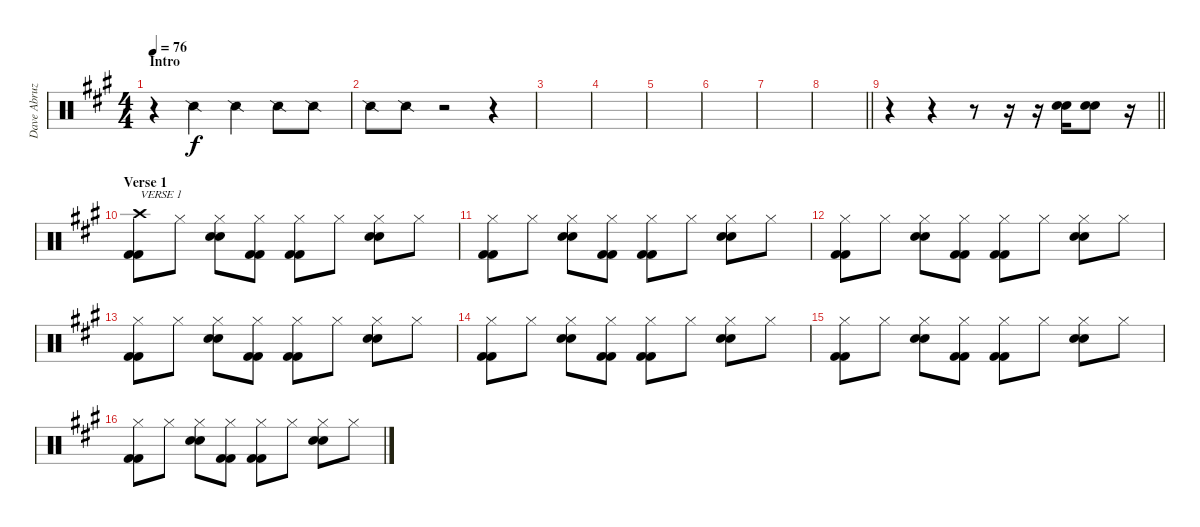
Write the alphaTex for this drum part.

\track ("Dave Abruzzese" "Dave Abruz") {instrument percussion}
\staff {score}
\articulation defaults
\ts (4 4)
\section ("" "Intro")
\tempo 76
\clef neutral
\ks a
r.4{dy f} "Snare (side stick) 2".4 "Snare (side stick) 2".4 "Snare (side stick) 2".8 "Snare (side stick) 2".8 |
"Snare (side stick) 2".8 "Snare (side stick) 2".8 r.2 r.4 |
|
|
|
|
|
\barLineRight lightlight
|
\section ("" "")
\barLineRight lightlight
r.4 r.4 r.8 r.16 r.16 ("Electric Snare (hit)" "Electric Snare (hit)").16 ("Electric Snare (hit)" "Electric Snare (hit)").8 r.16 |
\section ("" "Verse 1")
("Kick (hit) 2" "Kick (hit) 2" "Crash high (hit)").8{txt "VERSE 1"} "Hi-Hat (closed)".8 ("Electric Snare (hit)" "Electric Snare (hit)" "Hi-Hat (closed)").8 ("Kick (hit) 2" "Kick (hit) 2" "Hi-Hat (closed)").8 ("Kick (hit) 2" "Kick (hit) 2" "Hi-Hat (closed)").8 "Hi-Hat (closed)".8 ("Electric Snare (hit)" "Electric Snare (hit)" "Hi-Hat (closed)").8 "Hi-Hat (closed)".8 |
("Kick (hit) 2" "Kick (hit) 2" "Hi-Hat (closed)").8 "Hi-Hat (closed)".8 ("Electric Snare (hit)" "Electric Snare (hit)" "Hi-Hat (closed)").8 ("Kick (hit) 2" "Kick (hit) 2" "Hi-Hat (closed)").8 ("Kick (hit) 2" "Kick (hit) 2" "Hi-Hat (closed)").8 "Hi-Hat (closed)".8 ("Electric Snare (hit)" "Electric Snare (hit)" "Hi-Hat (closed)").8 "Hi-Hat (closed)".8 |
("Kick (hit) 2" "Kick (hit) 2" "Hi-Hat (closed)").8 "Hi-Hat (closed)".8 ("Electric Snare (hit)" "Electric Snare (hit)" "Hi-Hat (closed)").8 ("Kick (hit) 2" "Kick (hit) 2" "Hi-Hat (closed)").8 ("Kick (hit) 2" "Kick (hit) 2" "Hi-Hat (closed)").8 "Hi-Hat (closed)".8 ("Electric Snare (hit)" "Electric Snare (hit)" "Hi-Hat (closed)").8 "Hi-Hat (closed)".8 |
("Kick (hit) 2" "Kick (hit) 2" "Hi-Hat (closed)").8 "Hi-Hat (closed)".8 ("Electric Snare (hit)" "Electric Snare (hit)" "Hi-Hat (closed)").8 ("Kick (hit) 2" "Kick (hit) 2" "Hi-Hat (closed)").8 ("Kick (hit) 2" "Kick (hit) 2" "Hi-Hat (closed)").8 "Hi-Hat (closed)".8 ("Electric Snare (hit)" "Electric Snare (hit)" "Hi-Hat (closed)").8 "Hi-Hat (closed)".8 |
("Kick (hit) 2" "Kick (hit) 2" "Hi-Hat (closed)").8 "Hi-Hat (closed)".8 ("Electric Snare (hit)" "Electric Snare (hit)" "Hi-Hat (closed)").8 ("Kick (hit) 2" "Kick (hit) 2" "Hi-Hat (closed)").8 ("Kick (hit) 2" "Kick (hit) 2" "Hi-Hat (closed)").8 "Hi-Hat (closed)".8 ("Electric Snare (hit)" "Electric Snare (hit)" "Hi-Hat (closed)").8 "Hi-Hat (closed)".8 |
("Kick (hit) 2" "Kick (hit) 2" "Hi-Hat (closed)").8 "Hi-Hat (closed)".8 ("Electric Snare (hit)" "Electric Snare (hit)" "Hi-Hat (closed)").8 ("Kick (hit) 2" "Kick (hit) 2" "Hi-Hat (closed)").8 ("Kick (hit) 2" "Kick (hit) 2" "Hi-Hat (closed)").8 "Hi-Hat (closed)".8 ("Electric Snare (hit)" "Electric Snare (hit)" "Hi-Hat (closed)").8 "Hi-Hat (closed)".8 |
("Kick (hit) 2" "Kick (hit) 2" "Hi-Hat (closed)").8 "Hi-Hat (closed)".8 ("Electric Snare (hit)" "Electric Snare (hit)" "Hi-Hat (closed)").8 ("Kick (hit) 2" "Kick (hit) 2" "Hi-Hat (closed)").8 ("Kick (hit) 2" "Kick (hit) 2" "Hi-Hat (closed)").8 "Hi-Hat (closed)".8 ("Electric Snare (hit)" "Electric Snare (hit)" "Hi-Hat (closed)").8 "Hi-Hat (closed)".8
